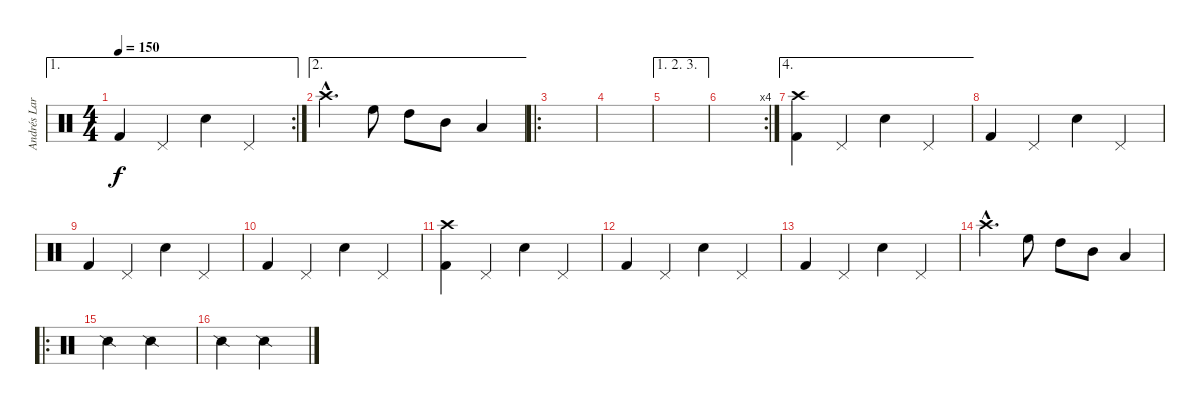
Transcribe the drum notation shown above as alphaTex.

\track ("Andrés Larraín (batería)" "Andrés Lar") {instrument percussion}
\staff {score}
\articulation defaults
\ae 1
\rc 2
\ts (4 4)
\tempo 150
\clef neutral
\ks c "Kick (hit) 2".4{dy f} "Pedal Hi-Hat (hit)".4 "Electric Snare (hit)".4 "Pedal Hi-Hat (hit)".4
|
\ae 2 "Crash high (hit)"{hac}.4{d} "High Floor Tom (hit)".8 "High Tom (hit)".8 "Mid Tom (hit)".8 "Low Tom (hit)".4
|
\ro
|
|
\ae (1 2 3)
|
\rc 4
|
\ae 4
("Crash high (hit)" "Kick (hit) 2").4 "Pedal Hi-Hat (hit)".4 "Electric Snare (hit)".4 "Pedal Hi-Hat (hit)".4 |
"Kick (hit) 2".4 "Pedal Hi-Hat (hit)".4 "Electric Snare (hit)".4 "Pedal Hi-Hat (hit)".4 |
"Kick (hit) 2".4 "Pedal Hi-Hat (hit)".4 "Electric Snare (hit)".4 "Pedal Hi-Hat (hit)".4 |
"Kick (hit) 2".4 "Pedal Hi-Hat (hit)".4 "Electric Snare (hit)".4 "Pedal Hi-Hat (hit)".4 |
("Crash high (hit)" "Kick (hit) 2").4 "Pedal Hi-Hat (hit)".4 "Electric Snare (hit)".4 "Pedal Hi-Hat (hit)".4 |
"Kick (hit) 2".4 "Pedal Hi-Hat (hit)".4 "Electric Snare (hit)".4 "Pedal Hi-Hat (hit)".4 |
"Kick (hit) 2".4 "Pedal Hi-Hat (hit)".4 "Electric Snare (hit)".4 "Pedal Hi-Hat (hit)".4 |
"Crash high (hit)"{hac}.4{d} "High Floor Tom (hit)".8 "High Tom (hit)".8 "Mid Tom (hit)".8 "Low Tom (hit)".4 |
\ro "Snare (side stick) 2".2 "Snare (side stick) 2".2
|
"Snare (side stick) 2".2 "Snare (side stick) 2".2
